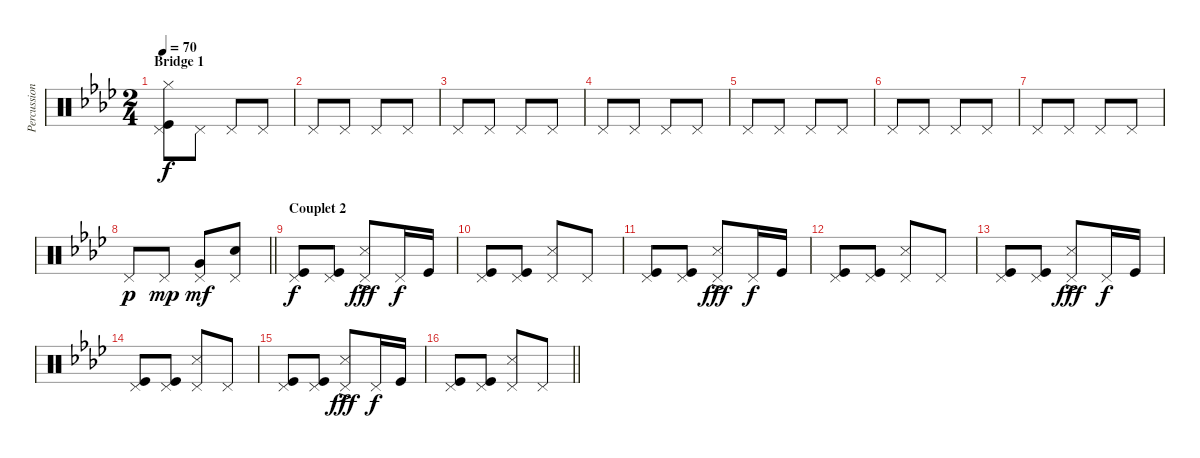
\track ("Percussions" "Percussion") {instrument percussion}
\staff {score}
\articulation defaults
\ts (2 4)
\section ("" "Bridge 1")
\tempo 70
\clef neutral
\ks fminor
("Hi-Hat (closed)" "Kick (hit)" "Pedal Hi-Hat (hit)").8{dy f} "Pedal Hi-Hat (hit)".8 "Pedal Hi-Hat (hit)".8 "Pedal Hi-Hat (hit)".8 |
"Pedal Hi-Hat (hit)".8 "Pedal Hi-Hat (hit)".8 "Pedal Hi-Hat (hit)".8 "Pedal Hi-Hat (hit)".8 |
"Pedal Hi-Hat (hit)".8 "Pedal Hi-Hat (hit)".8 "Pedal Hi-Hat (hit)".8 "Pedal Hi-Hat (hit)".8 |
"Pedal Hi-Hat (hit)".8 "Pedal Hi-Hat (hit)".8 "Pedal Hi-Hat (hit)".8 "Pedal Hi-Hat (hit)".8 |
"Pedal Hi-Hat (hit)".8 "Pedal Hi-Hat (hit)".8 "Pedal Hi-Hat (hit)".8 "Pedal Hi-Hat (hit)".8 |
"Pedal Hi-Hat (hit)".8 "Pedal Hi-Hat (hit)".8 "Pedal Hi-Hat (hit)".8 "Pedal Hi-Hat (hit)".8 |
"Pedal Hi-Hat (hit)".8 "Pedal Hi-Hat (hit)".8 "Pedal Hi-Hat (hit)".8 "Pedal Hi-Hat (hit)".8 |
\barLineRight lightlight "Pedal Hi-Hat (hit)".8{dy p} "Pedal Hi-Hat (hit)".8{dy mp}
("Pedal Hi-Hat (hit)" "Very Low Tom (hit)").8{dy mf} ("Electric Snare (hit)" "Pedal Hi-Hat (hit)").8 |
\section ("" "Couplet 2")
("Kick (hit)" "Pedal Hi-Hat (hit)").8{dy f} ("Kick (hit)" "Pedal Hi-Hat (hit)").8 ("Snare (side stick) 3"{ac} "Pedal Hi-Hat (hit)").8{dy fff} "Pedal Hi-Hat (hit)".16{dy f} "Kick (hit)".16 |
("Kick (hit)" "Pedal Hi-Hat (hit)").8 ("Kick (hit)" "Pedal Hi-Hat (hit)").8 ("Snare (side stick) 3" "Pedal Hi-Hat (hit)").8 "Pedal Hi-Hat (hit)".8 |
("Kick (hit)" "Pedal Hi-Hat (hit)").8 ("Kick (hit)" "Pedal Hi-Hat (hit)").8 ("Snare (side stick) 3"{ac} "Pedal Hi-Hat (hit)").8{dy fff} "Pedal Hi-Hat (hit)".16{dy f} "Kick (hit)".16 |
("Kick (hit)" "Pedal Hi-Hat (hit)").8 ("Kick (hit)" "Pedal Hi-Hat (hit)").8 ("Snare (side stick) 3" "Pedal Hi-Hat (hit)").8 "Pedal Hi-Hat (hit)".8 |
("Kick (hit)" "Pedal Hi-Hat (hit)").8 ("Kick (hit)" "Pedal Hi-Hat (hit)").8 ("Snare (side stick) 3"{ac} "Pedal Hi-Hat (hit)").8{dy fff} "Pedal Hi-Hat (hit)".16{dy f} "Kick (hit)".16 |
("Kick (hit)" "Pedal Hi-Hat (hit)").8 ("Kick (hit)" "Pedal Hi-Hat (hit)").8 ("Snare (side stick) 3" "Pedal Hi-Hat (hit)").8 "Pedal Hi-Hat (hit)".8 |
("Kick (hit)" "Pedal Hi-Hat (hit)").8 ("Kick (hit)" "Pedal Hi-Hat (hit)").8 ("Snare (side stick) 3"{ac} "Pedal Hi-Hat (hit)").8{dy fff} "Pedal Hi-Hat (hit)".16{dy f} "Kick (hit)".16 |
\barLineRight lightlight
("Kick (hit)" "Pedal Hi-Hat (hit)").8 ("Kick (hit)" "Pedal Hi-Hat (hit)").8 ("Snare (side stick) 3" "Pedal Hi-Hat (hit)").8 "Pedal Hi-Hat (hit)".8
